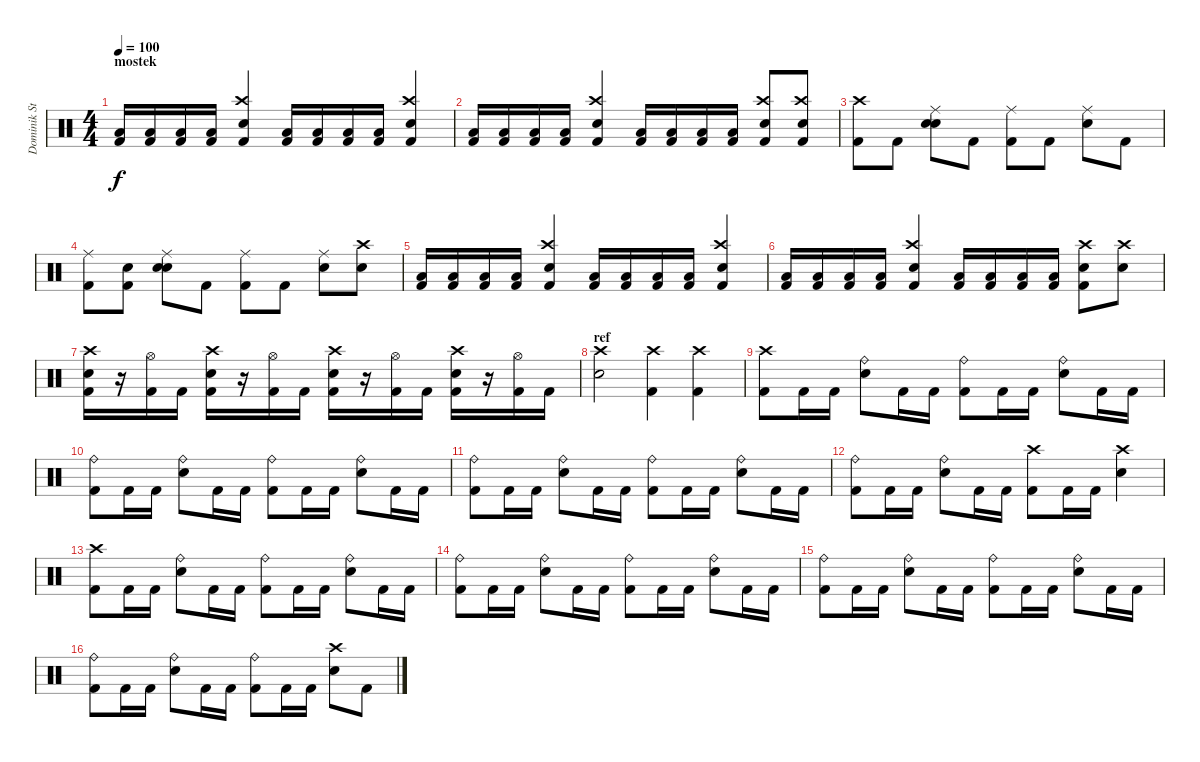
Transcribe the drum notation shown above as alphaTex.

\track ("Dominik Storch" "Dominik St") {instrument percussion}
\staff {score}
\articulation defaults
\ts (4 4)
\section ("" "mostek")
\tempo 100
\clef neutral
\ks c
("Low Tom (hit)" "Kick (hit) 2").16{dy f} ("Low Tom (hit)" "Kick (hit) 2").16 ("Low Tom (hit)" "Kick (hit) 2").16 ("Low Tom (hit)" "Kick (hit) 2").16 ("Crash high (hit)" "Snare (hit) 2" "Kick (hit) 2").4 ("Low Tom (hit)" "Kick (hit) 2").16 ("Low Tom (hit)" "Kick (hit) 2").16 ("Low Tom (hit)" "Kick (hit) 2").16 ("Low Tom (hit)" "Kick (hit) 2").16 ("Crash high (hit)" "Snare (hit) 2" "Kick (hit) 2").4 |
("Low Tom (hit)" "Kick (hit) 2").16 ("Low Tom (hit)" "Kick (hit) 2").16 ("Low Tom (hit)" "Kick (hit) 2").16 ("Low Tom (hit)" "Kick (hit) 2").16 ("Crash high (hit)" "Snare (hit) 2" "Kick (hit) 2").4 ("Low Tom (hit)" "Kick (hit) 2").16 ("Low Tom (hit)" "Kick (hit) 2").16 ("Low Tom (hit)" "Kick (hit) 2").16 ("Low Tom (hit)" "Kick (hit) 2").16 ("Crash high (hit)" "Snare (hit) 2" "Kick (hit) 2").8 ("Crash high (hit)" "Snare (hit) 2" "Kick (hit) 2").8 |
("Crash high (hit)" "Kick (hit) 2").8 "Kick (hit) 2".8 ("Ride (middle)" "Snare (hit)" "Snare (hit) 2").8 "Kick (hit) 2".8 ("Ride (middle)" "Kick (hit) 2").8 "Kick (hit) 2".8 ("Ride (middle)" "Snare (hit) 2").8 "Kick (hit) 2".8 |
("Ride (middle)" "Kick (hit) 2").8 ("Snare (hit)" "Kick (hit) 2").8 ("Ride (middle)" "Snare (hit)" "Snare (hit) 2").8 "Kick (hit) 2".8 ("Ride (middle)" "Kick (hit) 2").8 "Kick (hit) 2".8 ("Ride (middle)" "Snare (hit) 2").8 ("Crash high (hit)" "Snare (hit) 2").8 |
("Low Tom (hit)" "Kick (hit) 2").16 ("Low Tom (hit)" "Kick (hit) 2").16 ("Low Tom (hit)" "Kick (hit) 2").16 ("Low Tom (hit)" "Kick (hit) 2").16 ("Crash high (hit)" "Snare (hit) 2" "Kick (hit) 2").4 ("Low Tom (hit)" "Kick (hit) 2").16 ("Low Tom (hit)" "Kick (hit) 2").16 ("Low Tom (hit)" "Kick (hit) 2").16 ("Low Tom (hit)" "Kick (hit) 2").16 ("Crash high (hit)" "Snare (hit) 2" "Kick (hit) 2").4 |
("Low Tom (hit)" "Kick (hit) 2").16 ("Low Tom (hit)" "Kick (hit) 2").16 ("Low Tom (hit)" "Kick (hit) 2").16 ("Low Tom (hit)" "Kick (hit) 2").16 ("Crash high (hit)" "Snare (hit) 2" "Kick (hit) 2").4 ("Low Tom (hit)" "Kick (hit) 2").16 ("Low Tom (hit)" "Kick (hit) 2").16 ("Low Tom (hit)" "Kick (hit) 2").16 ("Low Tom (hit)" "Kick (hit) 2").16 ("Crash high (hit)" "Snare (hit) 2" "Kick (hit) 2").8 ("Crash high (hit)" "Snare (hit) 2").8 |
("Crash high (hit)" "Snare (hit) 2" "Kick (hit) 2").16 r.16 ("Hi-Hat (open)" "Kick (hit) 2").16 "Kick (hit) 2".16 ("Crash high (hit)" "Snare (hit) 2" "Kick (hit) 2").16 r.16 ("Hi-Hat (open)" "Kick (hit) 2").16 "Kick (hit) 2".16 ("Crash high (hit)" "Snare (hit) 2" "Kick (hit) 2").16 r.16 ("Hi-Hat (open)" "Kick (hit) 2").16 "Kick (hit) 2".16 ("Crash high (hit)" "Snare (hit) 2" "Kick (hit) 2").16 r.16 ("Hi-Hat (open)" "Kick (hit) 2").16 "Kick (hit) 2".16 |
\section ("" "ref")
("Crash high (hit)" "Snare (hit) 2").2 ("Crash high (hit)" "Kick (hit) 2").4 ("Crash high (hit)" "Kick (hit) 2").4 |
("Crash high (hit)" "Kick (hit) 2").8 "Kick (hit) 2".16 "Kick (hit) 2".16 ("Ride (bell)" "Snare (hit) 2").8 "Kick (hit) 2".16 "Kick (hit) 2".16 ("Ride (bell)" "Kick (hit) 2").8 "Kick (hit) 2".16 "Kick (hit) 2".16 ("Ride (bell)" "Snare (hit) 2").8 "Kick (hit) 2".16 "Kick (hit) 2".16 |
("Ride (bell)" "Kick (hit) 2").8 "Kick (hit) 2".16 "Kick (hit) 2".16 ("Ride (bell)" "Snare (hit) 2").8 "Kick (hit) 2".16 "Kick (hit) 2".16 ("Ride (bell)" "Kick (hit) 2").8 "Kick (hit) 2".16 "Kick (hit) 2".16 ("Ride (bell)" "Snare (hit) 2").8 "Kick (hit) 2".16 "Kick (hit) 2".16 |
("Ride (bell)" "Kick (hit) 2").8 "Kick (hit) 2".16 "Kick (hit) 2".16 ("Ride (bell)" "Snare (hit) 2").8 "Kick (hit) 2".16 "Kick (hit) 2".16 ("Ride (bell)" "Kick (hit) 2").8 "Kick (hit) 2".16 "Kick (hit) 2".16 ("Ride (bell)" "Snare (hit) 2").8 "Kick (hit) 2".16 "Kick (hit) 2".16 |
("Ride (bell)" "Kick (hit) 2").8 "Kick (hit) 2".16 "Kick (hit) 2".16 ("Ride (bell)" "Snare (hit) 2").8 "Kick (hit) 2".16 "Kick (hit) 2".16 ("Crash high (hit)" "Kick (hit) 2").8 "Kick (hit) 2".16 "Kick (hit) 2".16 ("Crash high (hit)" "Snare (hit) 2").4 |
("Crash high (hit)" "Kick (hit) 2").8 "Kick (hit) 2".16 "Kick (hit) 2".16 ("Ride (bell)" "Snare (hit) 2").8 "Kick (hit) 2".16 "Kick (hit) 2".16 ("Ride (bell)" "Kick (hit) 2").8 "Kick (hit) 2".16 "Kick (hit) 2".16 ("Ride (bell)" "Snare (hit) 2").8 "Kick (hit) 2".16 "Kick (hit) 2".16 |
("Ride (bell)" "Kick (hit) 2").8 "Kick (hit) 2".16 "Kick (hit) 2".16 ("Ride (bell)" "Snare (hit) 2").8 "Kick (hit) 2".16 "Kick (hit) 2".16 ("Ride (bell)" "Kick (hit) 2").8 "Kick (hit) 2".16 "Kick (hit) 2".16 ("Ride (bell)" "Snare (hit) 2").8 "Kick (hit) 2".16 "Kick (hit) 2".16 |
("Ride (bell)" "Kick (hit) 2").8 "Kick (hit) 2".16 "Kick (hit) 2".16 ("Ride (bell)" "Snare (hit) 2").8 "Kick (hit) 2".16 "Kick (hit) 2".16 ("Ride (bell)" "Kick (hit) 2").8 "Kick (hit) 2".16 "Kick (hit) 2".16 ("Ride (bell)" "Snare (hit) 2").8 "Kick (hit) 2".16 "Kick (hit) 2".16 |
("Ride (bell)" "Kick (hit) 2").8 "Kick (hit) 2".16 "Kick (hit) 2".16 ("Ride (bell)" "Snare (hit) 2").8 "Kick (hit) 2".16 "Kick (hit) 2".16 ("Ride (bell)" "Kick (hit) 2").8 "Kick (hit) 2".16 "Kick (hit) 2".16 ("Crash high (hit)" "Snare (hit) 2").8 "Kick (hit) 2".8
